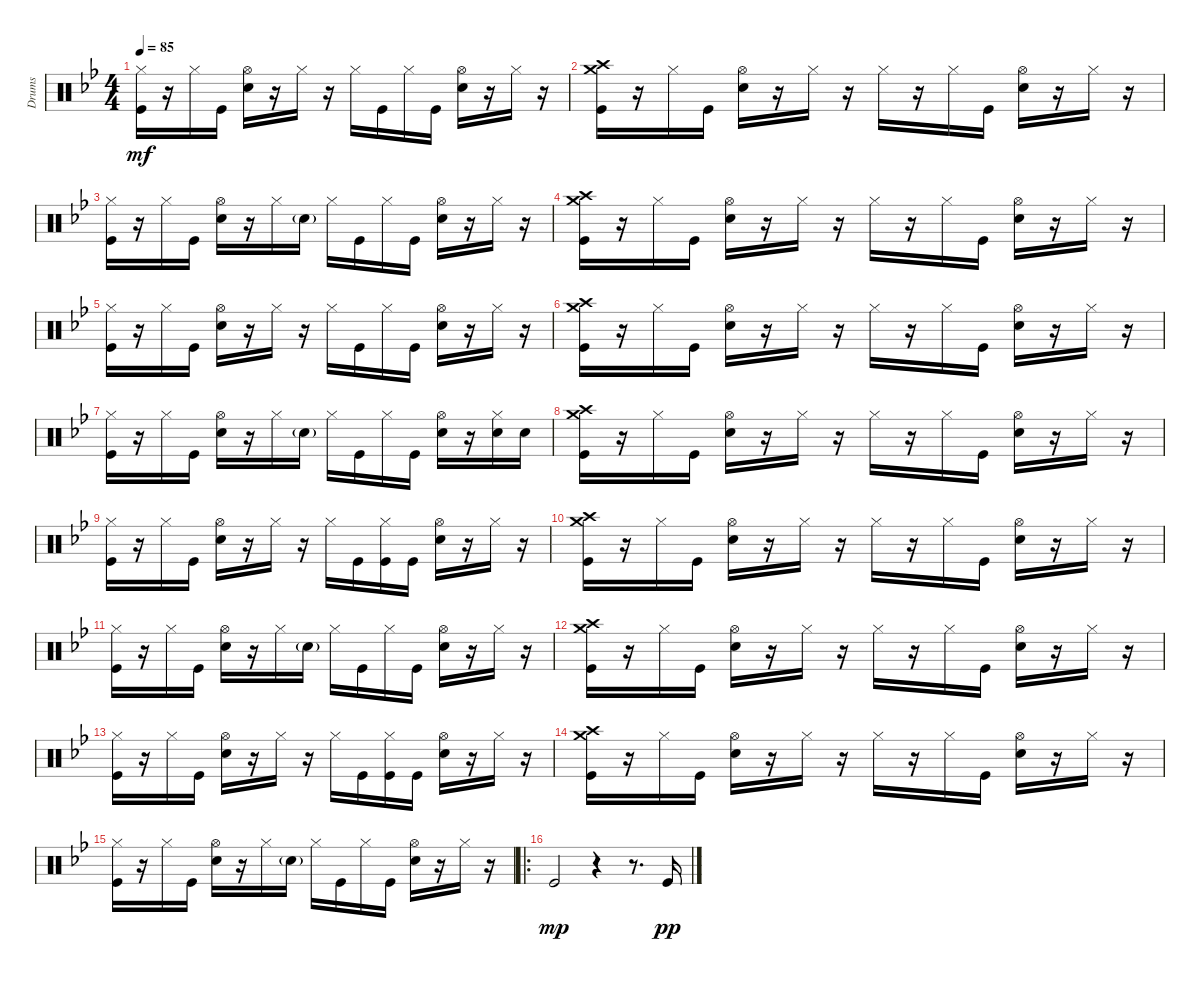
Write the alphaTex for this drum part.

\track ("Drums" "Drums") {instrument percussion}
\staff {score}
\articulation defaults
\ts (4 4)
\tempo 85
\clef neutral
\ks gminor
("Kick (hit)" "Hi-Hat (closed)").16{dy mf} r.16 "Hi-Hat (closed)".16 "Kick (hit)".16 ("Snare (hit) 2" "Hi-Hat (open)").16 r.16 "Hi-Hat (closed)".16 r.16 "Hi-Hat (closed)".16 "Kick (hit)".16 "Hi-Hat (closed)".16 "Kick (hit)".16 ("Snare (hit) 2" "Hi-Hat (open)").16 r.16 "Hi-Hat (closed)".16 r.16 |
("Kick (hit)" "Crash high (hit)" "Crash medium (hit)").16 r.16 "Hi-Hat (closed)".16 "Kick (hit)".16 ("Snare (hit) 2" "Hi-Hat (open)").16 r.16 "Hi-Hat (closed)".16 r.16 "Hi-Hat (closed)".16 r.16 "Hi-Hat (closed)".16 "Kick (hit)".16 ("Snare (hit) 2" "Hi-Hat (open)").16 r.16 "Hi-Hat (closed)".16 r.16 |
("Kick (hit)" "Hi-Hat (closed)").16 r.16 "Hi-Hat (closed)".16 "Kick (hit)".16 ("Snare (hit) 2" "Hi-Hat (open)").16 r.16 "Hi-Hat (closed)".16 "Snare (hit) 2"{g}.16 "Hi-Hat (closed)".16 "Kick (hit)".16 "Hi-Hat (closed)".16 "Kick (hit)".16 ("Snare (hit) 2" "Hi-Hat (open)").16 r.16 "Hi-Hat (closed)".16 r.16 |
("Kick (hit)" "Crash medium (hit)" "Crash high (hit)").16 r.16 "Hi-Hat (closed)".16 "Kick (hit)".16 ("Snare (hit) 2" "Hi-Hat (open)").16 r.16 "Hi-Hat (closed)".16 r.16 "Hi-Hat (closed)".16 r.16 "Hi-Hat (closed)".16 "Kick (hit)".16 ("Snare (hit) 2" "Hi-Hat (open)").16 r.16 "Hi-Hat (closed)".16 r.16 |
("Kick (hit)" "Hi-Hat (closed)").16 r.16 "Hi-Hat (closed)".16 "Kick (hit)".16 ("Snare (hit) 2" "Hi-Hat (open)").16 r.16 "Hi-Hat (closed)".16 r.16 "Hi-Hat (closed)".16 "Kick (hit)".16 "Hi-Hat (closed)".16 "Kick (hit)".16 ("Snare (hit) 2" "Hi-Hat (open)").16 r.16 "Hi-Hat (closed)".16 r.16 |
("Kick (hit)" "Crash high (hit)" "Crash medium (hit)").16 r.16 "Hi-Hat (closed)".16 "Kick (hit)".16 ("Snare (hit) 2" "Hi-Hat (open)").16 r.16 "Hi-Hat (closed)".16 r.16 "Hi-Hat (closed)".16 r.16 "Hi-Hat (closed)".16 "Kick (hit)".16 ("Snare (hit) 2" "Hi-Hat (open)").16 r.16 "Hi-Hat (closed)".16 r.16 |
("Kick (hit)" "Hi-Hat (closed)").16 r.16 "Hi-Hat (closed)".16 "Kick (hit)".16 ("Snare (hit) 2" "Hi-Hat (open)").16 r.16 "Hi-Hat (closed)".16 "Snare (hit) 2"{g}.16 "Hi-Hat (closed)".16 "Kick (hit)".16 "Hi-Hat (closed)".16 "Kick (hit)".16 ("Snare (hit) 2" "Hi-Hat (open)").16 r.16 ("Hi-Hat (closed)" "Snare (hit) 2").16 "Snare (hit) 2".16 |
("Kick (hit)" "Crash medium (hit)" "Crash high (hit)").16 r.16 "Hi-Hat (closed)".16 "Kick (hit)".16 ("Snare (hit) 2" "Hi-Hat (open)").16 r.16 "Hi-Hat (closed)".16 r.16 "Hi-Hat (closed)".16 r.16 "Hi-Hat (closed)".16 "Kick (hit)".16 ("Snare (hit) 2" "Hi-Hat (open)").16 r.16 "Hi-Hat (closed)".16 r.16 |
("Kick (hit)" "Hi-Hat (closed)").16 r.16 "Hi-Hat (closed)".16 "Kick (hit)".16 ("Snare (hit) 2" "Hi-Hat (open)").16 r.16 "Hi-Hat (closed)".16 r.16 "Hi-Hat (closed)".16 "Kick (hit)".16 ("Hi-Hat (closed)" "Kick (hit)").16 "Kick (hit)".16 ("Snare (hit) 2" "Hi-Hat (open)").16 r.16 "Hi-Hat (closed)".16 r.16 |
("Kick (hit)" "Crash high (hit)" "Crash medium (hit)").16 r.16 "Hi-Hat (closed)".16 "Kick (hit)".16 ("Snare (hit) 2" "Hi-Hat (open)").16 r.16 "Hi-Hat (closed)".16 r.16 "Hi-Hat (closed)".16 r.16 "Hi-Hat (closed)".16 "Kick (hit)".16 ("Snare (hit) 2" "Hi-Hat (open)").16 r.16 "Hi-Hat (closed)".16 r.16 |
("Kick (hit)" "Hi-Hat (closed)").16 r.16 "Hi-Hat (closed)".16 "Kick (hit)".16 ("Snare (hit) 2" "Hi-Hat (open)").16 r.16 "Hi-Hat (closed)".16 "Snare (hit) 2"{g}.16 "Hi-Hat (closed)".16 "Kick (hit)".16 "Hi-Hat (closed)".16 "Kick (hit)".16 ("Snare (hit) 2" "Hi-Hat (open)").16 r.16 "Hi-Hat (closed)".16 r.16 |
("Kick (hit)" "Crash medium (hit)" "Crash high (hit)").16 r.16 "Hi-Hat (closed)".16 "Kick (hit)".16 ("Snare (hit) 2" "Hi-Hat (open)").16 r.16 "Hi-Hat (closed)".16 r.16 "Hi-Hat (closed)".16 r.16 "Hi-Hat (closed)".16 "Kick (hit)".16 ("Snare (hit) 2" "Hi-Hat (open)").16 r.16 "Hi-Hat (closed)".16 r.16 |
("Kick (hit)" "Hi-Hat (closed)").16 r.16 "Hi-Hat (closed)".16 "Kick (hit)".16 ("Snare (hit) 2" "Hi-Hat (open)").16 r.16 "Hi-Hat (closed)".16 r.16 "Hi-Hat (closed)".16 "Kick (hit)".16 ("Hi-Hat (closed)" "Kick (hit)").16 "Kick (hit)".16 ("Snare (hit) 2" "Hi-Hat (open)").16 r.16 "Hi-Hat (closed)".16 r.16 |
("Kick (hit)" "Crash high (hit)" "Crash medium (hit)").16 r.16 "Hi-Hat (closed)".16 "Kick (hit)".16 ("Snare (hit) 2" "Hi-Hat (open)").16 r.16 "Hi-Hat (closed)".16 r.16 "Hi-Hat (closed)".16 r.16 "Hi-Hat (closed)".16 "Kick (hit)".16 ("Snare (hit) 2" "Hi-Hat (open)").16 r.16 "Hi-Hat (closed)".16 r.16 |
("Kick (hit)" "Hi-Hat (closed)").16 r.16 "Hi-Hat (closed)".16 "Kick (hit)".16 ("Snare (hit) 2" "Hi-Hat (open)").16 r.16 "Hi-Hat (closed)".16 "Snare (hit) 2"{g}.16 "Hi-Hat (closed)".16 "Kick (hit)".16 "Hi-Hat (closed)".16 "Kick (hit)".16 ("Snare (hit) 2" "Hi-Hat (open)").16 r.16 "Hi-Hat (closed)".16 r.16 |
\ro "Kick (hit)".2{dy mp}
r.4 r.8{d} "Kick (hit)".16{dy pp}
